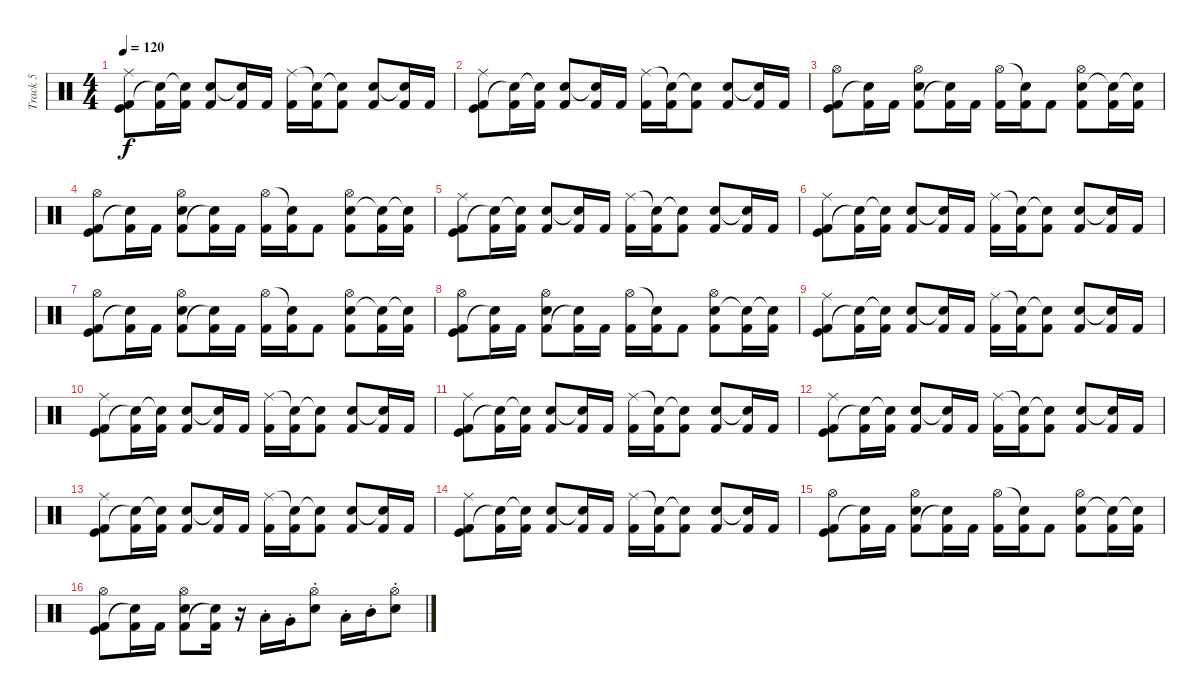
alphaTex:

\track ("Track 5" "Track 5") {instrument percussion}
\staff {score}
\articulation defaults
\ts (4 4)
\tempo 120
\clef neutral
\ks c
("Kick (hit)" "Kick (hit) 2" "Ride (middle)").8{dy f} ("Kick (hit) 2" "Snare (hit)"{t}).16 ("Kick (hit) 2" "Snare (hit)"{t}).16 ("Kick (hit) 2" "Snare (hit) 2").8 ("Kick (hit) 2" "Snare (hit)"{t}).16 "Kick (hit) 2".16 ("Kick (hit) 2" "Ride (middle)").16 ("Kick (hit) 2" "Snare (hit)"{t}).16 ("Kick (hit) 2" "Snare (hit)"{t}).8 ("Kick (hit) 2" "Snare (hit) 2").8 ("Kick (hit) 2" "Snare (hit)"{t}).16 "Kick (hit) 2".16 |
("Kick (hit)" "Kick (hit) 2" "Ride (middle)").8 ("Kick (hit) 2" "Snare (hit)"{t}).16 ("Kick (hit) 2" "Snare (hit)"{t}).16 ("Kick (hit) 2" "Snare (hit) 2").8 ("Kick (hit) 2" "Snare (hit)"{t}).16 "Kick (hit) 2".16 ("Kick (hit) 2" "Ride (middle)").16 ("Kick (hit) 2" "Snare (hit)"{t}).16 ("Kick (hit) 2" "Snare (hit)"{t}).8 ("Kick (hit) 2" "Snare (hit) 2").8 ("Kick (hit) 2" "Snare (hit)"{t}).16 "Kick (hit) 2".16 |
("Kick (hit)" "Kick (hit) 2" "Hi-Hat (open)").8 ("Kick (hit) 2" "Snare (hit)"{t}).16 "Kick (hit) 2".16 ("Snare (hit) 2" "Kick (hit) 2" "Hi-Hat (open)").8 ("Kick (hit) 2" "Snare (hit)"{t}).16 "Kick (hit) 2".16 ("Kick (hit) 2" "Hi-Hat (open)").16 ("Kick (hit) 2" "Snare (hit)"{t}).16 "Kick (hit) 2".8 ("Kick (hit) 2" "Snare (hit) 2" "Hi-Hat (open)").8 ("Kick (hit) 2" "Snare (hit)"{t}).16 ("Kick (hit) 2" "Snare (hit)"{t}).16 |
("Kick (hit)" "Kick (hit) 2" "Hi-Hat (open)").8 ("Kick (hit) 2" "Snare (hit)"{t}).16 "Kick (hit) 2".16 ("Snare (hit) 2" "Kick (hit) 2" "Hi-Hat (open)").8 ("Kick (hit) 2" "Snare (hit)"{t}).16 "Kick (hit) 2".16 ("Kick (hit) 2" "Hi-Hat (open)").16 ("Kick (hit) 2" "Snare (hit)"{t}).16 "Kick (hit) 2".8 ("Kick (hit) 2" "Snare (hit) 2" "Hi-Hat (open)").8 ("Kick (hit) 2" "Snare (hit)"{t}).16 ("Kick (hit) 2" "Snare (hit)"{t}).16 |
("Kick (hit)" "Kick (hit) 2" "Ride (middle)").8 ("Kick (hit) 2" "Snare (hit)"{t}).16 ("Kick (hit) 2" "Snare (hit)"{t}).16 ("Kick (hit) 2" "Snare (hit) 2").8 ("Kick (hit) 2" "Snare (hit)"{t}).16 "Kick (hit) 2".16 ("Kick (hit) 2" "Ride (middle)").16 ("Kick (hit) 2" "Snare (hit)"{t}).16 ("Kick (hit) 2" "Snare (hit)"{t}).8 ("Kick (hit) 2" "Snare (hit) 2").8 ("Kick (hit) 2" "Snare (hit)"{t}).16 "Kick (hit) 2".16 |
("Kick (hit)" "Kick (hit) 2" "Ride (middle)").8 ("Kick (hit) 2" "Snare (hit)"{t}).16 ("Kick (hit) 2" "Snare (hit)"{t}).16 ("Kick (hit) 2" "Snare (hit) 2").8 ("Kick (hit) 2" "Snare (hit)"{t}).16 "Kick (hit) 2".16 ("Kick (hit) 2" "Ride (middle)").16 ("Kick (hit) 2" "Snare (hit)"{t}).16 ("Kick (hit) 2" "Snare (hit)"{t}).8 ("Kick (hit) 2" "Snare (hit) 2").8 ("Kick (hit) 2" "Snare (hit)"{t}).16 "Kick (hit) 2".16 |
("Kick (hit)" "Kick (hit) 2" "Hi-Hat (open)").8 ("Kick (hit) 2" "Snare (hit)"{t}).16 "Kick (hit) 2".16 ("Snare (hit) 2" "Kick (hit) 2" "Hi-Hat (open)").8 ("Kick (hit) 2" "Snare (hit)"{t}).16 "Kick (hit) 2".16 ("Kick (hit) 2" "Hi-Hat (open)").16 ("Kick (hit) 2" "Snare (hit)"{t}).16 "Kick (hit) 2".8 ("Kick (hit) 2" "Snare (hit) 2" "Hi-Hat (open)").8 ("Kick (hit) 2" "Snare (hit)"{t}).16 ("Kick (hit) 2" "Snare (hit)"{t}).16 |
("Kick (hit)" "Kick (hit) 2" "Hi-Hat (open)").8 ("Kick (hit) 2" "Snare (hit)"{t}).16 "Kick (hit) 2".16 ("Snare (hit) 2" "Kick (hit) 2" "Hi-Hat (open)").8 ("Kick (hit) 2" "Snare (hit)"{t}).16 "Kick (hit) 2".16 ("Kick (hit) 2" "Hi-Hat (open)").16 ("Kick (hit) 2" "Snare (hit)"{t}).16 "Kick (hit) 2".8 ("Kick (hit) 2" "Snare (hit) 2" "Hi-Hat (open)").8 ("Kick (hit) 2" "Snare (hit)"{t}).16 ("Kick (hit) 2" "Snare (hit)"{t}).16 |
("Kick (hit)" "Kick (hit) 2" "Ride (middle)").8 ("Kick (hit) 2" "Snare (hit)"{t}).16 ("Kick (hit) 2" "Snare (hit)"{t}).16 ("Kick (hit) 2" "Snare (hit) 2").8 ("Kick (hit) 2" "Snare (hit)"{t}).16 "Kick (hit) 2".16 ("Kick (hit) 2" "Ride (middle)").16 ("Kick (hit) 2" "Snare (hit)"{t}).16 ("Kick (hit) 2" "Snare (hit)"{t}).8 ("Kick (hit) 2" "Snare (hit) 2").8 ("Kick (hit) 2" "Snare (hit)"{t}).16 "Kick (hit) 2".16 |
("Kick (hit)" "Kick (hit) 2" "Ride (middle)").8 ("Kick (hit) 2" "Snare (hit)"{t}).16 ("Kick (hit) 2" "Snare (hit)"{t}).16 ("Kick (hit) 2" "Snare (hit) 2").8 ("Kick (hit) 2" "Snare (hit)"{t}).16 "Kick (hit) 2".16 ("Kick (hit) 2" "Ride (middle)").16 ("Kick (hit) 2" "Snare (hit)"{t}).16 ("Kick (hit) 2" "Snare (hit)"{t}).8 ("Kick (hit) 2" "Snare (hit) 2").8 ("Kick (hit) 2" "Snare (hit)"{t}).16 "Kick (hit) 2".16 |
("Kick (hit)" "Kick (hit) 2" "Ride (middle)").8 ("Kick (hit) 2" "Snare (hit)"{t}).16 ("Kick (hit) 2" "Snare (hit)"{t}).16 ("Kick (hit) 2" "Snare (hit) 2").8 ("Kick (hit) 2" "Snare (hit)"{t}).16 "Kick (hit) 2".16 ("Kick (hit) 2" "Ride (middle)").16 ("Kick (hit) 2" "Snare (hit)"{t}).16 ("Kick (hit) 2" "Snare (hit)"{t}).8 ("Kick (hit) 2" "Snare (hit) 2").8 ("Kick (hit) 2" "Snare (hit)"{t}).16 "Kick (hit) 2".16 |
("Kick (hit)" "Kick (hit) 2" "Ride (middle)").8 ("Kick (hit) 2" "Snare (hit)"{t}).16 ("Kick (hit) 2" "Snare (hit)"{t}).16 ("Kick (hit) 2" "Snare (hit) 2").8 ("Kick (hit) 2" "Snare (hit)"{t}).16 "Kick (hit) 2".16 ("Kick (hit) 2" "Ride (middle)").16 ("Kick (hit) 2" "Snare (hit)"{t}).16 ("Kick (hit) 2" "Snare (hit)"{t}).8 ("Kick (hit) 2" "Snare (hit) 2").8 ("Kick (hit) 2" "Snare (hit)"{t}).16 "Kick (hit) 2".16 |
("Kick (hit)" "Kick (hit) 2" "Ride (middle)").8 ("Kick (hit) 2" "Snare (hit)"{t}).16 ("Kick (hit) 2" "Snare (hit)"{t}).16 ("Kick (hit) 2" "Snare (hit) 2").8 ("Kick (hit) 2" "Snare (hit)"{t}).16 "Kick (hit) 2".16 ("Kick (hit) 2" "Ride (middle)").16 ("Kick (hit) 2" "Snare (hit)"{t}).16 ("Kick (hit) 2" "Snare (hit)"{t}).8 ("Kick (hit) 2" "Snare (hit) 2").8 ("Kick (hit) 2" "Snare (hit)"{t}).16 "Kick (hit) 2".16 |
("Kick (hit)" "Kick (hit) 2" "Ride (middle)").8 ("Kick (hit) 2" "Snare (hit)"{t}).16 ("Kick (hit) 2" "Snare (hit)"{t}).16 ("Kick (hit) 2" "Snare (hit) 2").8 ("Kick (hit) 2" "Snare (hit)"{t}).16 "Kick (hit) 2".16 ("Kick (hit) 2" "Ride (middle)").16 ("Kick (hit) 2" "Snare (hit)"{t}).16 ("Kick (hit) 2" "Snare (hit)"{t}).8 ("Kick (hit) 2" "Snare (hit) 2").8 ("Kick (hit) 2" "Snare (hit)"{t}).16 "Kick (hit) 2".16 |
("Kick (hit)" "Kick (hit) 2" "Hi-Hat (open)").8 ("Kick (hit) 2" "Snare (hit)"{t}).16 "Kick (hit) 2".16 ("Snare (hit) 2" "Kick (hit) 2" "Hi-Hat (open)").8 ("Kick (hit) 2" "Snare (hit)"{t}).16 "Kick (hit) 2".16 ("Kick (hit) 2" "Hi-Hat (open)").16 ("Kick (hit) 2" "Snare (hit)"{t}).16 "Kick (hit) 2".8 ("Kick (hit) 2" "Snare (hit) 2" "Hi-Hat (open)").8 ("Kick (hit) 2" "Snare (hit)"{t}).16 ("Kick (hit) 2" "Snare (hit)"{t}).16 |
("Kick (hit)" "Kick (hit) 2" "Hi-Hat (open)").8 ("Kick (hit) 2" "Snare (hit)"{t}).16 "Kick (hit) 2".16 ("Snare (hit) 2" "Kick (hit) 2" "Hi-Hat (open)").8 ("Kick (hit) 2" "Snare (hit)"{t}).16 r.16 "Low Floor Tom (hit)"{st}.16 "Very Low Tom (hit)"{st}.16 ("Snare (hit) 2"{st} "Hi-Hat (open)"{st}).8 "Low Tom (hit)"{st}.16 "Mid Tom (hit)"{st}.16 ("Snare (hit) 2"{st} "Hi-Hat (open)"{st}).8
